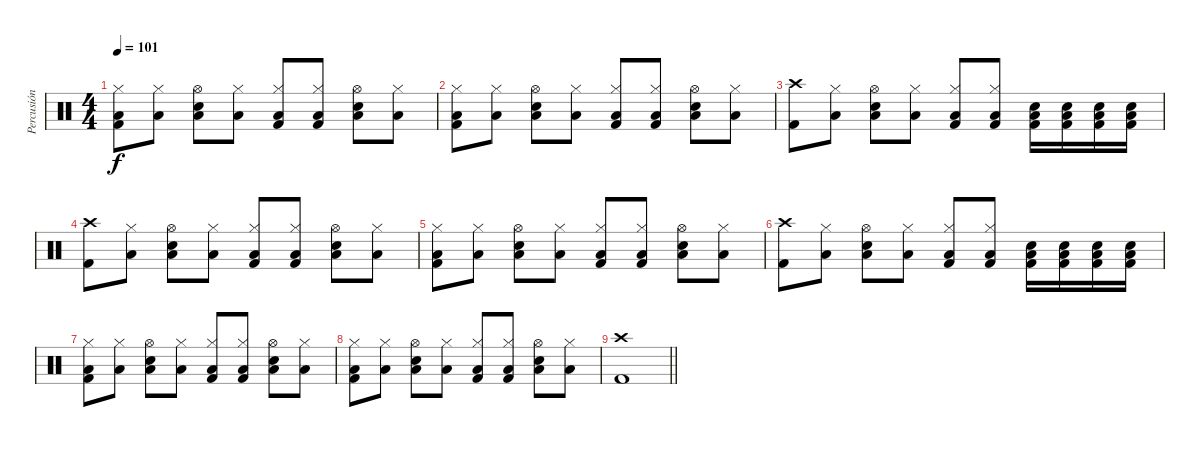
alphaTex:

\track ("Percusión" "Percusión") {instrument percussion}
\staff {score}
\articulation defaults
\ts (4 4)
\tempo 101
\clef neutral
\ks c
("Low Floor Tom (hit)" "Hi-Hat (closed)" "Kick (hit) 2").8{dy f} ("Low Floor Tom (hit)" "Hi-Hat (closed)").8 ("Low Floor Tom (hit)" "Hi-Hat (open)" "Snare (hit) 2").8 ("Low Floor Tom (hit)" "Hi-Hat (closed)").8 ("Low Floor Tom (hit)" "Hi-Hat (closed)" "Kick (hit) 2").8 ("Low Floor Tom (hit)" "Hi-Hat (closed)" "Kick (hit) 2").8 ("Low Floor Tom (hit)" "Hi-Hat (open)" "Snare (hit) 2").8 ("Low Floor Tom (hit)" "Hi-Hat (closed)").8 |
("Low Floor Tom (hit)" "Hi-Hat (closed)" "Kick (hit) 2").8 ("Low Floor Tom (hit)" "Hi-Hat (closed)").8 ("Low Floor Tom (hit)" "Hi-Hat (open)" "Snare (hit) 2").8 ("Low Floor Tom (hit)" "Hi-Hat (closed)").8 ("Low Floor Tom (hit)" "Hi-Hat (closed)" "Kick (hit) 2").8 ("Low Floor Tom (hit)" "Hi-Hat (closed)" "Kick (hit) 2").8 ("Low Floor Tom (hit)" "Hi-Hat (open)" "Snare (hit) 2").8 ("Low Floor Tom (hit)" "Hi-Hat (closed)").8 |
("Kick (hit) 2" "Crash high (hit)").8 ("Low Floor Tom (hit)" "Hi-Hat (closed)").8 ("Low Floor Tom (hit)" "Hi-Hat (open)" "Snare (hit) 2").8 ("Low Floor Tom (hit)" "Hi-Hat (closed)").8 ("Low Floor Tom (hit)" "Hi-Hat (closed)" "Kick (hit) 2").8 ("Low Floor Tom (hit)" "Hi-Hat (closed)" "Kick (hit) 2").8 ("Snare (hit) 2" "Low Floor Tom (hit)" "Kick (hit) 2").16 ("Snare (hit) 2" "Low Floor Tom (hit)" "Kick (hit) 2").16 ("Snare (hit) 2" "Low Floor Tom (hit)" "Kick (hit) 2").16 ("Snare (hit) 2" "Low Floor Tom (hit)" "Kick (hit) 2").16 |
("Kick (hit) 2" "Crash high (hit)").8 ("Low Floor Tom (hit)" "Hi-Hat (closed)").8 ("Low Floor Tom (hit)" "Hi-Hat (open)" "Snare (hit) 2").8 ("Low Floor Tom (hit)" "Hi-Hat (closed)").8 ("Low Floor Tom (hit)" "Hi-Hat (closed)" "Kick (hit) 2").8 ("Low Floor Tom (hit)" "Hi-Hat (closed)" "Kick (hit) 2").8 ("Low Floor Tom (hit)" "Hi-Hat (open)" "Snare (hit) 2").8 ("Low Floor Tom (hit)" "Hi-Hat (closed)").8 |
("Low Floor Tom (hit)" "Hi-Hat (closed)" "Kick (hit) 2").8 ("Low Floor Tom (hit)" "Hi-Hat (closed)").8 ("Low Floor Tom (hit)" "Hi-Hat (open)" "Snare (hit) 2").8 ("Low Floor Tom (hit)" "Hi-Hat (closed)").8 ("Low Floor Tom (hit)" "Hi-Hat (closed)" "Kick (hit) 2").8 ("Low Floor Tom (hit)" "Hi-Hat (closed)" "Kick (hit) 2").8 ("Low Floor Tom (hit)" "Hi-Hat (open)" "Snare (hit) 2").8 ("Low Floor Tom (hit)" "Hi-Hat (closed)").8 |
("Kick (hit) 2" "Crash high (hit)").8 ("Low Floor Tom (hit)" "Hi-Hat (closed)").8 ("Low Floor Tom (hit)" "Hi-Hat (open)" "Snare (hit) 2").8 ("Low Floor Tom (hit)" "Hi-Hat (closed)").8 ("Low Floor Tom (hit)" "Hi-Hat (closed)" "Kick (hit) 2").8 ("Low Floor Tom (hit)" "Hi-Hat (closed)" "Kick (hit) 2").8 ("Snare (hit) 2" "Low Floor Tom (hit)" "Kick (hit) 2").16 ("Snare (hit) 2" "Low Floor Tom (hit)" "Kick (hit) 2").16 ("Snare (hit) 2" "Low Floor Tom (hit)" "Kick (hit) 2").16 ("Snare (hit) 2" "Low Floor Tom (hit)" "Kick (hit) 2").16 |
("Low Floor Tom (hit)" "Hi-Hat (closed)" "Kick (hit) 2").8 ("Low Floor Tom (hit)" "Hi-Hat (closed)").8 ("Low Floor Tom (hit)" "Hi-Hat (open)" "Snare (hit) 2").8 ("Low Floor Tom (hit)" "Hi-Hat (closed)").8 ("Low Floor Tom (hit)" "Hi-Hat (closed)" "Kick (hit) 2").8 ("Low Floor Tom (hit)" "Hi-Hat (closed)" "Kick (hit) 2").8 ("Low Floor Tom (hit)" "Hi-Hat (open)" "Snare (hit) 2").8 ("Low Floor Tom (hit)" "Hi-Hat (closed)").8 |
("Low Floor Tom (hit)" "Hi-Hat (closed)" "Kick (hit) 2").8 ("Low Floor Tom (hit)" "Hi-Hat (closed)").8 ("Low Floor Tom (hit)" "Hi-Hat (open)" "Snare (hit) 2").8 ("Low Floor Tom (hit)" "Hi-Hat (closed)").8 ("Low Floor Tom (hit)" "Hi-Hat (closed)" "Kick (hit) 2").8 ("Low Floor Tom (hit)" "Hi-Hat (closed)" "Kick (hit) 2").8 ("Low Floor Tom (hit)" "Hi-Hat (open)" "Snare (hit) 2").8 ("Low Floor Tom (hit)" "Hi-Hat (closed)").8 |
\barLineRight lightlight
("Kick (hit) 2" "Crash high (hit)").1
